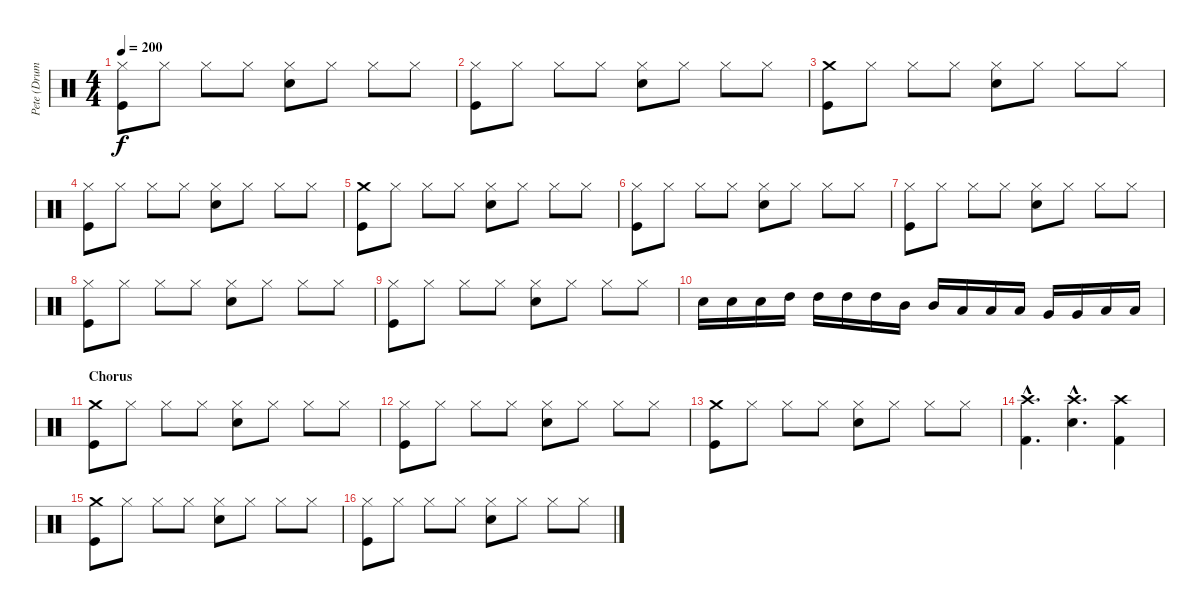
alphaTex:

\track ("Pete (Drums)" "Pete (Drum") {instrument percussion}
\staff {score}
\articulation defaults
\ts (4 4)
\tempo 200
\clef neutral
\ks c
("Hi-Hat (closed)" "Kick (hit)").8{dy f} "Hi-Hat (closed)".8 "Hi-Hat (closed)".8 "Hi-Hat (closed)".8 ("Hi-Hat (closed)" "Snare (hit) 2").8 "Hi-Hat (closed)".8 "Hi-Hat (closed)".8 "Hi-Hat (closed)".8 |
("Hi-Hat (closed)" "Kick (hit)").8 "Hi-Hat (closed)".8 "Hi-Hat (closed)".8 "Hi-Hat (closed)".8 ("Hi-Hat (closed)" "Snare (hit) 2").8 "Hi-Hat (closed)".8 "Hi-Hat (closed)".8 "Hi-Hat (closed)".8 |
("Crash medium (hit)" "Kick (hit)").8 "Hi-Hat (closed)".8 "Hi-Hat (closed)".8 "Hi-Hat (closed)".8 ("Hi-Hat (closed)" "Snare (hit) 2").8 "Hi-Hat (closed)".8 "Hi-Hat (closed)".8 "Hi-Hat (closed)".8 |
("Hi-Hat (closed)" "Kick (hit)").8 "Hi-Hat (closed)".8 "Hi-Hat (closed)".8 "Hi-Hat (closed)".8 ("Hi-Hat (closed)" "Snare (hit) 2").8 "Hi-Hat (closed)".8 "Hi-Hat (closed)".8 "Hi-Hat (closed)".8 |
("Crash medium (hit)" "Kick (hit)").8 "Hi-Hat (closed)".8 "Hi-Hat (closed)".8 "Hi-Hat (closed)".8 ("Hi-Hat (closed)" "Snare (hit) 2").8 "Hi-Hat (closed)".8 "Hi-Hat (closed)".8 "Hi-Hat (closed)".8 |
("Hi-Hat (closed)" "Kick (hit)").8 "Hi-Hat (closed)".8 "Hi-Hat (closed)".8 "Hi-Hat (closed)".8 ("Hi-Hat (closed)" "Snare (hit) 2").8 "Hi-Hat (closed)".8 "Hi-Hat (closed)".8 "Hi-Hat (closed)".8 |
("Hi-Hat (closed)" "Kick (hit)").8 "Hi-Hat (closed)".8 "Hi-Hat (closed)".8 "Hi-Hat (closed)".8 ("Hi-Hat (closed)" "Snare (hit) 2").8 "Hi-Hat (closed)".8 "Hi-Hat (closed)".8 "Hi-Hat (closed)".8 |
("Hi-Hat (closed)" "Kick (hit)").8 "Hi-Hat (closed)".8 "Hi-Hat (closed)".8 "Hi-Hat (closed)".8 ("Hi-Hat (closed)" "Snare (hit) 2").8 "Hi-Hat (closed)".8 "Hi-Hat (closed)".8 "Hi-Hat (closed)".8 |
("Hi-Hat (closed)" "Kick (hit)").8 "Hi-Hat (closed)".8 "Hi-Hat (closed)".8 "Hi-Hat (closed)".8 ("Hi-Hat (closed)" "Snare (hit) 2").8 "Hi-Hat (closed)".8 "Hi-Hat (closed)".8 "Hi-Hat (closed)".8 |
"Snare (hit) 2".16 "Snare (hit) 2".16 "Snare (hit) 2".16 "High Tom (hit)".16 "High Tom (hit)".16 "High Tom (hit)".16 "High Tom (hit)".16 "Mid Tom (hit)".16 "Mid Tom (hit)".16 "Low Tom (hit)".16 "Low Tom (hit)".16 "Low Tom (hit)".16 "Very Low Tom (hit)".16 "Very Low Tom (hit)".16 "Low Floor Tom (hit)".16 "Low Floor Tom (hit)".16 |
\section ("" "Chorus")
("Crash medium (hit)" "Kick (hit)").8 "Hi-Hat (closed)".8 "Hi-Hat (closed)".8 "Hi-Hat (closed)".8 ("Hi-Hat (closed)" "Snare (hit) 2").8 "Hi-Hat (closed)".8 "Hi-Hat (closed)".8 "Hi-Hat (closed)".8 |
("Hi-Hat (closed)" "Kick (hit)").8 "Hi-Hat (closed)".8 "Hi-Hat (closed)".8 "Hi-Hat (closed)".8 ("Hi-Hat (closed)" "Snare (hit) 2").8 "Hi-Hat (closed)".8 "Hi-Hat (closed)".8 "Hi-Hat (closed)".8 |
("Crash medium (hit)" "Kick (hit)").8 "Hi-Hat (closed)".8 "Hi-Hat (closed)".8 "Hi-Hat (closed)".8 ("Hi-Hat (closed)" "Snare (hit) 2").8 "Hi-Hat (closed)".8 "Hi-Hat (closed)".8 "Hi-Hat (closed)".8 |
("Crash high (hit)"{hac} "Kick (hit) 2"{hac}).4{d} ("Crash high (hit)"{hac} "Snare (hit) 2"{hac}).4{d} ("Crash high (hit)" "Kick (hit) 2").4 |
("Crash medium (hit)" "Kick (hit)").8 "Hi-Hat (closed)".8 "Hi-Hat (closed)".8 "Hi-Hat (closed)".8 ("Hi-Hat (closed)" "Snare (hit) 2").8 "Hi-Hat (closed)".8 "Hi-Hat (closed)".8 "Hi-Hat (closed)".8 |
("Hi-Hat (closed)" "Kick (hit)").8 "Hi-Hat (closed)".8 "Hi-Hat (closed)".8 "Hi-Hat (closed)".8 ("Hi-Hat (closed)" "Snare (hit) 2").8 "Hi-Hat (closed)".8 "Hi-Hat (closed)".8 "Hi-Hat (closed)".8
